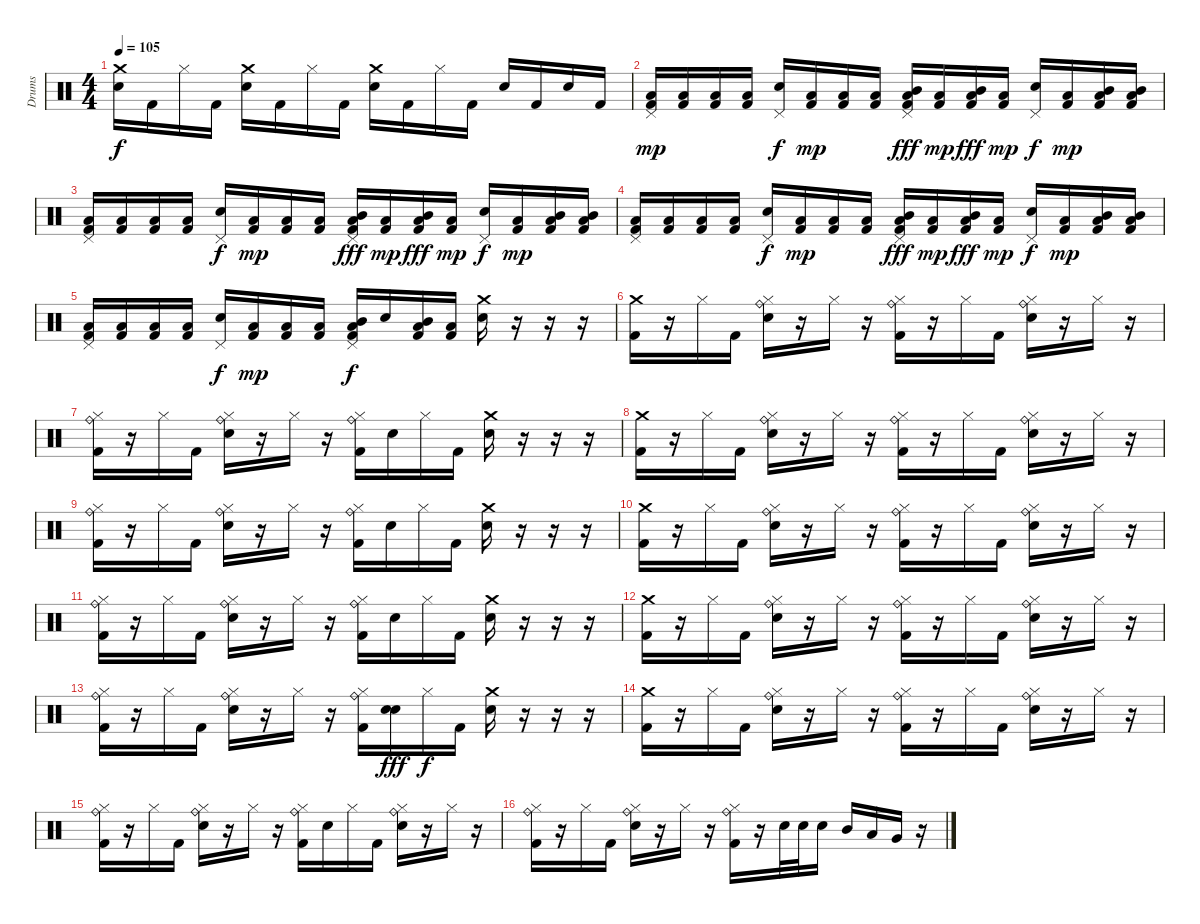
\track ("Drums" "Drums") {instrument percussion}
\staff {score}
\articulation defaults
\ts (4 4)
\tempo 105
\clef neutral
\ks c
("Crash medium (hit)" "Snare (hit) 2").16{dy f} "Kick (hit) 2".16 "Hi-Hat (closed)".16 "Kick (hit) 2".16 ("Crash medium (hit)" "Snare (hit) 2").16 "Kick (hit) 2".16 "Hi-Hat (closed)".16 "Kick (hit) 2".16 ("Crash medium (hit)" "Snare (hit) 2").16 "Kick (hit) 2".16 "Hi-Hat (closed)".16 "Kick (hit) 2".16 "Snare (hit) 2".16 "Kick (hit) 2".16 "Snare (hit) 2".16 "Kick (hit) 2".16 |
("Pedal Hi-Hat (hit)" "Low Tom (hit)" "Kick (hit) 2").16{dy mp} ("Low Tom (hit)" "Kick (hit) 2").16 ("Low Tom (hit)" "Kick (hit) 2").16 ("Low Tom (hit)" "Kick (hit) 2").16 ("Pedal Hi-Hat (hit)" "Snare (hit) 2").16{dy f} ("Low Tom (hit)" "Kick (hit) 2").16{dy mp} ("Low Tom (hit)" "Kick (hit) 2").16 ("Low Tom (hit)" "Kick (hit) 2").16 ("Pedal Hi-Hat (hit)" "Mid Tom (hit)" "Low Tom (hit)" "Kick (hit) 2").16{dy fff} ("Low Tom (hit)" "Kick (hit) 2").16{dy mp} ("Mid Tom (hit)" "Low Tom (hit)" "Kick (hit) 2").16{dy fff} ("Low Tom (hit)" "Kick (hit) 2").16{dy mp} ("Pedal Hi-Hat (hit)" "Snare (hit) 2").16{dy f} ("Low Tom (hit)" "Kick (hit) 2").16{dy mp} ("Mid Tom (hit)" "Low Tom (hit)" "Kick (hit) 2").16 ("Mid Tom (hit)" "Low Tom (hit)" "Kick (hit) 2").16 |
("Pedal Hi-Hat (hit)" "Low Tom (hit)" "Kick (hit) 2").16 ("Low Tom (hit)" "Kick (hit) 2").16 ("Low Tom (hit)" "Kick (hit) 2").16 ("Low Tom (hit)" "Kick (hit) 2").16 ("Pedal Hi-Hat (hit)" "Snare (hit) 2").16{dy f} ("Low Tom (hit)" "Kick (hit) 2").16{dy mp} ("Low Tom (hit)" "Kick (hit) 2").16 ("Low Tom (hit)" "Kick (hit) 2").16 ("Pedal Hi-Hat (hit)" "Mid Tom (hit)" "Low Tom (hit)" "Kick (hit) 2").16{dy fff} ("Low Tom (hit)" "Kick (hit) 2").16{dy mp} ("Mid Tom (hit)" "Low Tom (hit)" "Kick (hit) 2").16{dy fff} ("Low Tom (hit)" "Kick (hit) 2").16{dy mp} ("Pedal Hi-Hat (hit)" "Snare (hit) 2").16{dy f} ("Low Tom (hit)" "Kick (hit) 2").16{dy mp} ("Mid Tom (hit)" "Low Tom (hit)" "Kick (hit) 2").16 ("Mid Tom (hit)" "Low Tom (hit)" "Kick (hit) 2").16 |
("Pedal Hi-Hat (hit)" "Low Tom (hit)" "Kick (hit) 2").16 ("Low Tom (hit)" "Kick (hit) 2").16 ("Low Tom (hit)" "Kick (hit) 2").16 ("Low Tom (hit)" "Kick (hit) 2").16 ("Pedal Hi-Hat (hit)" "Snare (hit) 2").16{dy f} ("Low Tom (hit)" "Kick (hit) 2").16{dy mp} ("Low Tom (hit)" "Kick (hit) 2").16 ("Low Tom (hit)" "Kick (hit) 2").16 ("Pedal Hi-Hat (hit)" "Mid Tom (hit)" "Low Tom (hit)" "Kick (hit) 2").16{dy fff} ("Low Tom (hit)" "Kick (hit) 2").16{dy mp} ("Mid Tom (hit)" "Low Tom (hit)" "Kick (hit) 2").16{dy fff} ("Low Tom (hit)" "Kick (hit) 2").16{dy mp} ("Pedal Hi-Hat (hit)" "Snare (hit) 2").16{dy f} ("Low Tom (hit)" "Kick (hit) 2").16{dy mp} ("Mid Tom (hit)" "Low Tom (hit)" "Kick (hit) 2").16 ("Mid Tom (hit)" "Low Tom (hit)" "Kick (hit) 2").16 |
("Pedal Hi-Hat (hit)" "Low Tom (hit)" "Kick (hit) 2").16 ("Low Tom (hit)" "Kick (hit) 2").16 ("Low Tom (hit)" "Kick (hit) 2").16 ("Low Tom (hit)" "Kick (hit) 2").16 ("Pedal Hi-Hat (hit)" "Snare (hit) 2").16{dy f} ("Low Tom (hit)" "Kick (hit) 2").16{dy mp} ("Low Tom (hit)" "Kick (hit) 2").16 ("Low Tom (hit)" "Kick (hit) 2").16 ("Pedal Hi-Hat (hit)" "Mid Tom (hit)" "Low Tom (hit)" "Kick (hit) 2").16{dy f} "Snare (hit) 2".16 ("Mid Tom (hit)" "Low Tom (hit)" "Kick (hit) 2").16 ("Low Tom (hit)" "Kick (hit) 2").16 ("Crash medium (hit)" "Snare (hit) 2").16 r.16 r.16 r.16 |
("Crash medium (hit)" "Kick (hit) 2").16 r.16 "Hi-Hat (closed)".16 "Kick (hit) 2".16 ("Ride (bell)" "Hi-Hat (closed)" "Snare (hit) 2").16 r.16 "Hi-Hat (closed)".16 r.16 ("Ride (bell)" "Hi-Hat (closed)" "Kick (hit) 2").16 r.16 "Hi-Hat (closed)".16 "Kick (hit) 2".16 ("Ride (bell)" "Hi-Hat (closed)" "Snare (hit) 2").16 r.16 "Hi-Hat (closed)".16 r.16 |
("Ride (bell)" "Hi-Hat (closed)" "Kick (hit) 2").16 r.16 "Hi-Hat (closed)".16 "Kick (hit) 2".16 ("Ride (bell)" "Hi-Hat (closed)" "Snare (hit) 2").16 r.16 "Hi-Hat (closed)".16 r.16 ("Ride (bell)" "Hi-Hat (closed)" "Kick (hit) 2").16 "Snare (hit) 2".16 "Hi-Hat (closed)".16 "Kick (hit) 2".16 ("Crash medium (hit)" "Snare (hit) 2").16 r.16 r.16 r.16 |
("Crash medium (hit)" "Kick (hit) 2").16 r.16 "Hi-Hat (closed)".16 "Kick (hit) 2".16 ("Ride (bell)" "Hi-Hat (closed)" "Snare (hit) 2").16 r.16 "Hi-Hat (closed)".16 r.16 ("Ride (bell)" "Hi-Hat (closed)" "Kick (hit) 2").16 r.16 "Hi-Hat (closed)".16 "Kick (hit) 2".16 ("Ride (bell)" "Hi-Hat (closed)" "Snare (hit) 2").16 r.16 "Hi-Hat (closed)".16 r.16 |
("Ride (bell)" "Hi-Hat (closed)" "Kick (hit) 2").16 r.16 "Hi-Hat (closed)".16 "Kick (hit) 2".16 ("Ride (bell)" "Hi-Hat (closed)" "Snare (hit) 2").16 r.16 "Hi-Hat (closed)".16 r.16 ("Ride (bell)" "Hi-Hat (closed)" "Kick (hit) 2").16 "Snare (hit) 2".16 "Hi-Hat (closed)".16 "Kick (hit) 2".16 ("Crash medium (hit)" "Snare (hit) 2").16 r.16 r.16 r.16 |
("Crash medium (hit)" "Kick (hit) 2").16 r.16 "Hi-Hat (closed)".16 "Kick (hit) 2".16 ("Ride (bell)" "Hi-Hat (closed)" "Snare (hit) 2").16 r.16 "Hi-Hat (closed)".16 r.16 ("Ride (bell)" "Hi-Hat (closed)" "Kick (hit) 2").16 r.16 "Hi-Hat (closed)".16 "Kick (hit) 2".16 ("Ride (bell)" "Hi-Hat (closed)" "Snare (hit) 2").16 r.16 "Hi-Hat (closed)".16 r.16 |
("Ride (bell)" "Hi-Hat (closed)" "Kick (hit) 2").16 r.16 "Hi-Hat (closed)".16 "Kick (hit) 2".16 ("Ride (bell)" "Hi-Hat (closed)" "Snare (hit) 2").16 r.16 "Hi-Hat (closed)".16 r.16 ("Ride (bell)" "Hi-Hat (closed)" "Kick (hit) 2").16 "Snare (hit) 2".16 "Hi-Hat (closed)".16 "Kick (hit) 2".16 ("Crash medium (hit)" "Snare (hit) 2").16 r.16 r.16 r.16 |
("Crash medium (hit)" "Kick (hit) 2").16 r.16 "Hi-Hat (closed)".16 "Kick (hit) 2".16 ("Ride (bell)" "Hi-Hat (closed)" "Snare (hit) 2").16 r.16 "Hi-Hat (closed)".16 r.16 ("Ride (bell)" "Hi-Hat (closed)" "Kick (hit) 2").16 r.16 "Hi-Hat (closed)".16 "Kick (hit) 2".16 ("Ride (bell)" "Hi-Hat (closed)" "Snare (hit) 2").16 r.16 "Hi-Hat (closed)".16 r.16 |
("Ride (bell)" "Hi-Hat (closed)" "Kick (hit) 2").16 r.16 "Hi-Hat (closed)".16 "Kick (hit) 2".16 ("Ride (bell)" "Hi-Hat (closed)" "Snare (hit) 2").16 r.16 "Hi-Hat (closed)".16 r.16 ("Ride (bell)" "Hi-Hat (closed)" "Kick (hit) 2").16 ("Snare (hit) 2" "Snare (hit) 2").16{dy fff} "Hi-Hat (closed)".16{dy f} "Kick (hit) 2".16 ("Crash medium (hit)" "Snare (hit) 2").16 r.16 r.16 r.16 |
("Crash medium (hit)" "Kick (hit) 2").16 r.16 "Hi-Hat (closed)".16 "Kick (hit) 2".16 ("Ride (bell)" "Hi-Hat (closed)" "Snare (hit) 2").16 r.16 "Hi-Hat (closed)".16 r.16 ("Ride (bell)" "Hi-Hat (closed)" "Kick (hit) 2").16 r.16 "Hi-Hat (closed)".16 "Kick (hit) 2".16 ("Ride (bell)" "Hi-Hat (closed)" "Snare (hit) 2").16 r.16 "Hi-Hat (closed)".16 r.16 |
("Ride (bell)" "Hi-Hat (closed)" "Kick (hit) 2").16 r.16 "Hi-Hat (closed)".16 "Kick (hit) 2".16 ("Ride (bell)" "Hi-Hat (closed)" "Snare (hit) 2").16 r.16 "Hi-Hat (closed)".16 r.16 ("Ride (bell)" "Hi-Hat (closed)" "Kick (hit) 2").16 "Snare (hit) 2".16 "Hi-Hat (closed)".16 "Kick (hit) 2".16 ("Ride (bell)" "Hi-Hat (closed)" "Snare (hit) 2").16 r.16 "Hi-Hat (closed)".16 r.16 |
("Ride (bell)" "Hi-Hat (closed)" "Kick (hit) 2").16 r.16 "Hi-Hat (closed)".16 "Kick (hit) 2".16 ("Ride (bell)" "Hi-Hat (closed)" "Snare (hit) 2").16 r.16 "Hi-Hat (closed)".16 r.16 ("Ride (bell)" "Hi-Hat (closed)" "Kick (hit) 2").16 r.16 "Snare (hit) 2".32 "Snare (hit) 2".32 "Snare (hit) 2".16 "Mid Tom (hit)".16 "Low Tom (hit)".16 "Very Low Tom (hit)".16 r.16
